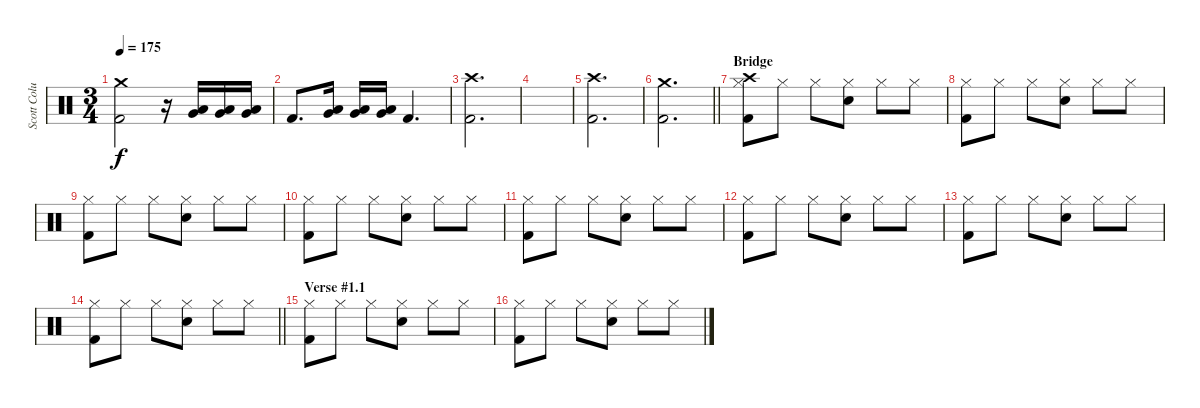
\track ("Scott Columbus" "Scott Colu") {instrument percussion}
\staff {score}
\articulation defaults
\ts (3 4)
\tempo 175
\clef neutral
\ks c
("Kick (hit) 2" "Crash medium (hit)").2{dy f} r.16 ("Very Low Tom (hit)" "Low Tom (hit)").16 ("Very Low Tom (hit)" "Low Tom (hit)").16 ("Very Low Tom (hit)" "Low Tom (hit)").16 |
"Kick (hit) 2".8{d} ("Very Low Tom (hit)" "Low Tom (hit)").16 ("Very Low Tom (hit)" "Low Tom (hit)").16 ("Very Low Tom (hit)" "Low Tom (hit)").16 "Kick (hit) 2".4{d} |
("Kick (hit) 2" "Crash high (hit)").2{d} |
|
("Kick (hit) 2" "Crash high (hit)").2{d} |
\barLineRight lightlight
("Kick (hit) 2" "Crash medium (hit)").2{d} |
\section ("" "Bridge")
("Kick (hit) 2" "Hi-Hat (closed)" "Crash high (hit)").8 "Hi-Hat (closed)".8 "Hi-Hat (closed)".8 ("Snare (hit) 2" "Hi-Hat (closed)").8 "Hi-Hat (closed)".8 "Hi-Hat (closed)".8 |
("Kick (hit) 2" "Hi-Hat (closed)").8 "Hi-Hat (closed)".8 "Hi-Hat (closed)".8 ("Snare (hit) 2" "Hi-Hat (closed)").8 "Hi-Hat (closed)".8 "Hi-Hat (closed)".8 |
("Kick (hit) 2" "Hi-Hat (closed)").8 "Hi-Hat (closed)".8 "Hi-Hat (closed)".8 ("Snare (hit) 2" "Hi-Hat (closed)").8 "Hi-Hat (closed)".8 "Hi-Hat (closed)".8 |
("Kick (hit) 2" "Hi-Hat (closed)").8 "Hi-Hat (closed)".8 "Hi-Hat (closed)".8 ("Snare (hit) 2" "Hi-Hat (closed)").8 "Hi-Hat (closed)".8 "Hi-Hat (closed)".8 |
("Kick (hit) 2" "Hi-Hat (closed)").8 "Hi-Hat (closed)".8 "Hi-Hat (closed)".8 ("Snare (hit) 2" "Hi-Hat (closed)").8 "Hi-Hat (closed)".8 "Hi-Hat (closed)".8 |
("Kick (hit) 2" "Hi-Hat (closed)").8 "Hi-Hat (closed)".8 "Hi-Hat (closed)".8 ("Snare (hit) 2" "Hi-Hat (closed)").8 "Hi-Hat (closed)".8 "Hi-Hat (closed)".8 |
("Kick (hit) 2" "Hi-Hat (closed)").8 "Hi-Hat (closed)".8 "Hi-Hat (closed)".8 ("Snare (hit) 2" "Hi-Hat (closed)").8 "Hi-Hat (closed)".8 "Hi-Hat (closed)".8 |
\barLineRight lightlight
("Kick (hit) 2" "Hi-Hat (closed)").8 "Hi-Hat (closed)".8 "Hi-Hat (closed)".8 ("Snare (hit) 2" "Hi-Hat (closed)").8 "Hi-Hat (closed)".8 "Hi-Hat (closed)".8 |
\section ("" "Verse #1.1")
("Kick (hit) 2" "Hi-Hat (closed)").8 "Hi-Hat (closed)".8 "Hi-Hat (closed)".8 ("Snare (hit) 2" "Hi-Hat (closed)").8 "Hi-Hat (closed)".8 "Hi-Hat (closed)".8 |
("Kick (hit) 2" "Hi-Hat (closed)").8 "Hi-Hat (closed)".8 "Hi-Hat (closed)".8 ("Snare (hit) 2" "Hi-Hat (closed)").8 "Hi-Hat (closed)".8 "Hi-Hat (closed)".8
